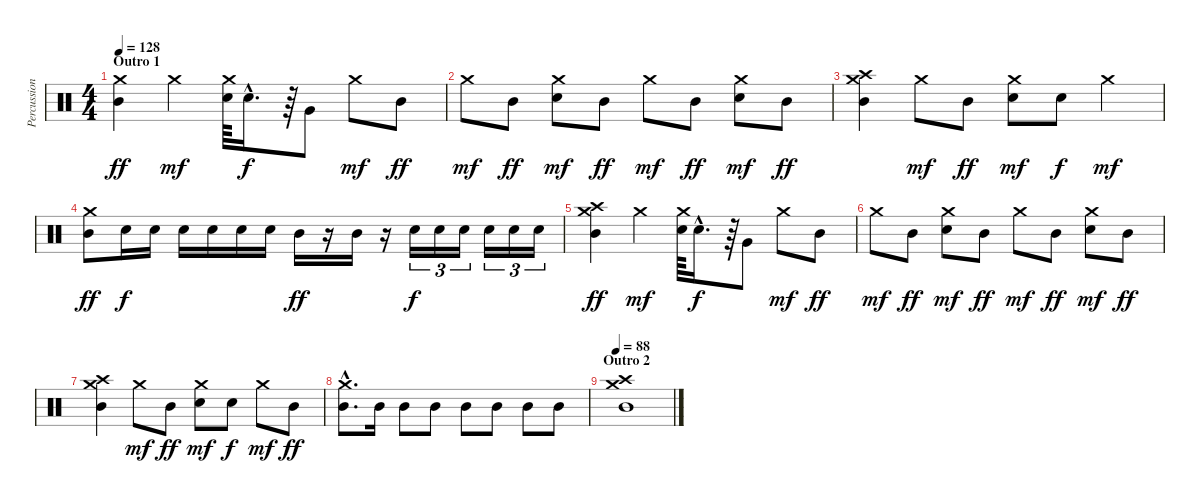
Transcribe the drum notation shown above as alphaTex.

\track ("Percussion" "Percussion") {instrument percussion}
\staff {score}
\articulation defaults
\ts (4 4)
\section ("" "Outro 1")
\tempo 128
\clef neutral
\ks c
("Crash medium (hit)" "Mid Tom (hit)").4{dy ff} "Crash medium (hit)".4{dy mf} ("Crash medium (hit)" "Electric Snare (hit)").64 "Electric Snare (hit)"{hac}.16{d dy f} r.64 "Very Low Tom (hit)".8 "Crash medium (hit)".8{dy mf} "Mid Tom (hit)".8{dy ff} |
"Crash medium (hit)".8{dy mf} "Mid Tom (hit)".8{dy ff} ("Crash medium (hit)" "Electric Snare (hit)").8{dy mf} "Mid Tom (hit)".8{dy ff} "Crash medium (hit)".8{dy mf} "Mid Tom (hit)".8{dy ff} ("Crash medium (hit)" "Electric Snare (hit)").8{dy mf} "Mid Tom (hit)".8{dy ff} |
("Crash medium (hit)" "Crash high (hit)" "Mid Tom (hit)").4 "Crash medium (hit)".8{dy mf} "Mid Tom (hit)".8{dy ff} ("Crash medium (hit)" "Electric Snare (hit)").8{dy mf} "Electric Snare (hit)".8{dy f} "Crash medium (hit)".4{dy mf} |
("Crash medium (hit)" "Mid Tom (hit)").8{dy ff} "Electric Snare (hit)".16{dy f} "Electric Snare (hit)".16 "Electric Snare (hit)".16 "Electric Snare (hit)".16 "Electric Snare (hit)".16 "Electric Snare (hit)".16 "Mid Tom (hit)".16{dy ff} r.16 "Mid Tom (hit)".16 r.16 "Electric Snare (hit)".16{tu (3 2) dy f} "Snare (hit) 2".16{tu (3 2)} "Snare (hit) 2".16{tu (3 2)} "Electric Snare (hit)".16{tu (3 2)} "Snare (hit) 2".16{tu (3 2)} "Snare (hit) 2".16{tu (3 2)} |
("Crash medium (hit)" "Crash high (hit)" "Mid Tom (hit)").4{dy ff} "Crash medium (hit)".4{dy mf} ("Crash medium (hit)" "Electric Snare (hit)").64 "Electric Snare (hit)"{hac}.16{d dy f} r.64 "Very Low Tom (hit)".8 "Crash medium (hit)".8{dy mf} "Mid Tom (hit)".8{dy ff} |
"Crash medium (hit)".8{dy mf} "Mid Tom (hit)".8{dy ff} ("Crash medium (hit)" "Electric Snare (hit)").8{dy mf} "Mid Tom (hit)".8{dy ff} "Crash medium (hit)".8{dy mf} "Mid Tom (hit)".8{dy ff} ("Crash medium (hit)" "Electric Snare (hit)").8{dy mf} "Mid Tom (hit)".8{dy ff} |
("Crash medium (hit)" "Crash high (hit)" "Mid Tom (hit)").4 "Crash medium (hit)".8{dy mf} "Mid Tom (hit)".8{dy ff} ("Crash medium (hit)" "Electric Snare (hit)").8{dy mf} "Electric Snare (hit)".8{dy f} "Crash medium (hit)".8{dy mf} "Mid Tom (hit)".8{dy ff} |
("Crash medium (hit)"{hac} "Mid Tom (hit)"{hac}).8{d} "Mid Tom (hit)".16 "Mid Tom (hit)".8 "Mid Tom (hit)".8 "Mid Tom (hit)".8 "Mid Tom (hit)".8 "Mid Tom (hit)".8 "Mid Tom (hit)".8 |
\section ("" "Outro 2")
\tempo 88
("Crash medium (hit)" "Crash high (hit)" "Mid Tom (hit)").1
